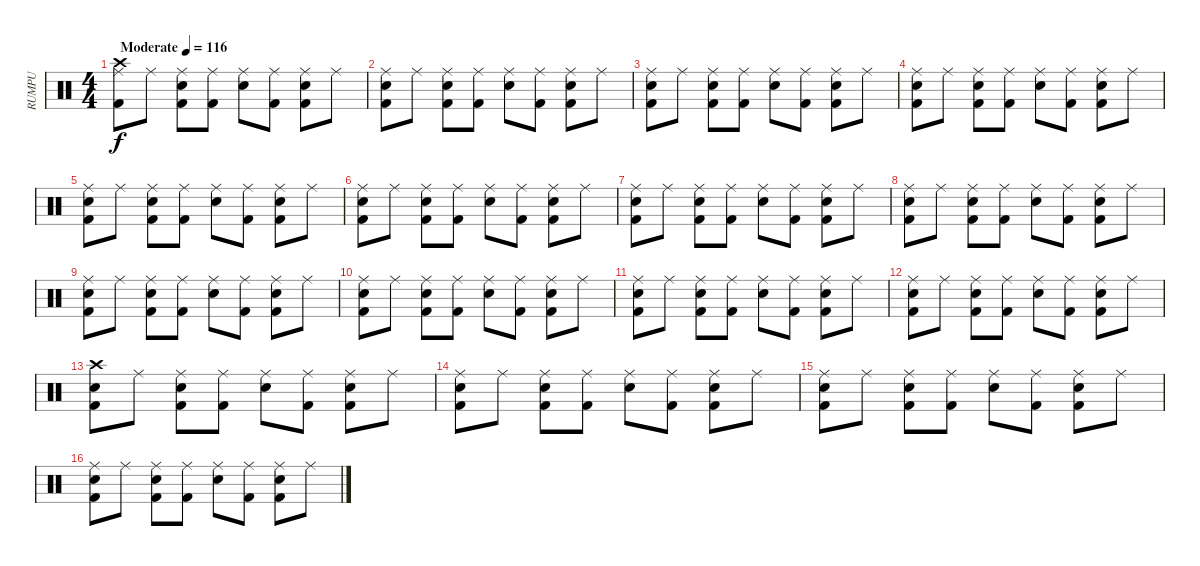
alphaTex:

\track ("RUMPU" "RUMPU") {instrument percussion}
\staff {score}
\articulation defaults
\ts (4 4)
\tempo (116 "Moderate")
\clef neutral
\ks c
("Crash high (hit)" "Ride (middle)" "Kick (hit) 2").8{dy f} "Ride (middle)".8 ("Electric Snare (hit)" "Ride (middle)" "Kick (hit) 2").8 ("Ride (middle)" "Kick (hit) 2").8 ("Electric Snare (hit)" "Ride (middle)").8 ("Ride (middle)" "Kick (hit) 2").8 ("Electric Snare (hit)" "Ride (middle)" "Kick (hit) 2").8 "Ride (middle)".8 |
("Electric Snare (hit)" "Ride (middle)" "Kick (hit) 2").8 "Ride (middle)".8 ("Electric Snare (hit)" "Ride (middle)" "Kick (hit) 2").8 ("Ride (middle)" "Kick (hit) 2").8 ("Electric Snare (hit)" "Ride (middle)").8 ("Ride (middle)" "Kick (hit) 2").8 ("Electric Snare (hit)" "Ride (middle)" "Kick (hit) 2").8 "Ride (middle)".8 |
("Electric Snare (hit)" "Ride (middle)" "Kick (hit) 2").8 "Ride (middle)".8 ("Electric Snare (hit)" "Ride (middle)" "Kick (hit) 2").8 ("Ride (middle)" "Kick (hit) 2").8 ("Electric Snare (hit)" "Ride (middle)").8 ("Ride (middle)" "Kick (hit) 2").8 ("Electric Snare (hit)" "Ride (middle)" "Kick (hit) 2").8 "Ride (middle)".8 |
("Electric Snare (hit)" "Ride (middle)" "Kick (hit) 2").8 "Ride (middle)".8 ("Electric Snare (hit)" "Ride (middle)" "Kick (hit) 2").8 ("Ride (middle)" "Kick (hit) 2").8 ("Electric Snare (hit)" "Ride (middle)").8 ("Ride (middle)" "Kick (hit) 2").8 ("Electric Snare (hit)" "Ride (middle)" "Kick (hit) 2").8 "Ride (middle)".8 |
("Electric Snare (hit)" "Ride (middle)" "Kick (hit) 2").8 "Ride (middle)".8 ("Electric Snare (hit)" "Ride (middle)" "Kick (hit) 2").8 ("Ride (middle)" "Kick (hit) 2").8 ("Electric Snare (hit)" "Ride (middle)").8 ("Ride (middle)" "Kick (hit) 2").8 ("Electric Snare (hit)" "Ride (middle)" "Kick (hit) 2").8 "Ride (middle)".8 |
("Electric Snare (hit)" "Ride (middle)" "Kick (hit) 2").8 "Ride (middle)".8 ("Electric Snare (hit)" "Ride (middle)" "Kick (hit) 2").8 ("Ride (middle)" "Kick (hit) 2").8 ("Electric Snare (hit)" "Ride (middle)").8 ("Ride (middle)" "Kick (hit) 2").8 ("Electric Snare (hit)" "Ride (middle)" "Kick (hit) 2").8 "Ride (middle)".8 |
("Electric Snare (hit)" "Ride (middle)" "Kick (hit) 2").8 "Ride (middle)".8 ("Electric Snare (hit)" "Ride (middle)" "Kick (hit) 2").8 ("Ride (middle)" "Kick (hit) 2").8 ("Electric Snare (hit)" "Ride (middle)").8 ("Ride (middle)" "Kick (hit) 2").8 ("Electric Snare (hit)" "Ride (middle)" "Kick (hit) 2").8 "Ride (middle)".8 |
("Electric Snare (hit)" "Ride (middle)" "Kick (hit) 2").8 "Ride (middle)".8 ("Electric Snare (hit)" "Ride (middle)" "Kick (hit) 2").8 ("Ride (middle)" "Kick (hit) 2").8 ("Electric Snare (hit)" "Ride (middle)").8 ("Ride (middle)" "Kick (hit) 2").8 ("Electric Snare (hit)" "Ride (middle)" "Kick (hit) 2").8 "Ride (middle)".8 |
("Electric Snare (hit)" "Ride (middle)" "Kick (hit) 2").8 "Ride (middle)".8 ("Electric Snare (hit)" "Ride (middle)" "Kick (hit) 2").8 ("Ride (middle)" "Kick (hit) 2").8 ("Electric Snare (hit)" "Ride (middle)").8 ("Ride (middle)" "Kick (hit) 2").8 ("Electric Snare (hit)" "Ride (middle)" "Kick (hit) 2").8 "Ride (middle)".8 |
("Electric Snare (hit)" "Ride (middle)" "Kick (hit) 2").8 "Ride (middle)".8 ("Electric Snare (hit)" "Ride (middle)" "Kick (hit) 2").8 ("Ride (middle)" "Kick (hit) 2").8 ("Electric Snare (hit)" "Ride (middle)").8 ("Ride (middle)" "Kick (hit) 2").8 ("Electric Snare (hit)" "Ride (middle)" "Kick (hit) 2").8 "Ride (middle)".8 |
("Electric Snare (hit)" "Ride (middle)" "Kick (hit) 2").8 "Ride (middle)".8 ("Electric Snare (hit)" "Ride (middle)" "Kick (hit) 2").8 ("Ride (middle)" "Kick (hit) 2").8 ("Electric Snare (hit)" "Ride (middle)").8 ("Ride (middle)" "Kick (hit) 2").8 ("Electric Snare (hit)" "Ride (middle)" "Kick (hit) 2").8 "Ride (middle)".8 |
("Electric Snare (hit)" "Ride (middle)" "Kick (hit) 2").8 "Ride (middle)".8 ("Electric Snare (hit)" "Ride (middle)" "Kick (hit) 2").8 ("Ride (middle)" "Kick (hit) 2").8 ("Electric Snare (hit)" "Ride (middle)").8 ("Ride (middle)" "Kick (hit) 2").8 ("Electric Snare (hit)" "Ride (middle)" "Kick (hit) 2").8 "Ride (middle)".8 |
("Electric Snare (hit)" "Crash high (hit)" "Kick (hit) 2").8 "Ride (middle)".8 ("Electric Snare (hit)" "Ride (middle)" "Kick (hit) 2").8 ("Ride (middle)" "Kick (hit) 2").8 ("Electric Snare (hit)" "Ride (middle)").8 ("Ride (middle)" "Kick (hit) 2").8 ("Electric Snare (hit)" "Ride (middle)" "Kick (hit) 2").8 "Ride (middle)".8 |
("Electric Snare (hit)" "Ride (middle)" "Kick (hit) 2").8 "Ride (middle)".8 ("Electric Snare (hit)" "Ride (middle)" "Kick (hit) 2").8 ("Ride (middle)" "Kick (hit) 2").8 ("Electric Snare (hit)" "Ride (middle)").8 ("Ride (middle)" "Kick (hit) 2").8 ("Electric Snare (hit)" "Ride (middle)" "Kick (hit) 2").8 "Ride (middle)".8 |
("Electric Snare (hit)" "Ride (middle)" "Kick (hit) 2").8 "Ride (middle)".8 ("Electric Snare (hit)" "Ride (middle)" "Kick (hit) 2").8 ("Ride (middle)" "Kick (hit) 2").8 ("Electric Snare (hit)" "Ride (middle)").8 ("Ride (middle)" "Kick (hit) 2").8 ("Electric Snare (hit)" "Ride (middle)" "Kick (hit) 2").8 "Ride (middle)".8 |
("Electric Snare (hit)" "Ride (middle)" "Kick (hit) 2").8 "Ride (middle)".8 ("Electric Snare (hit)" "Ride (middle)" "Kick (hit) 2").8 ("Ride (middle)" "Kick (hit) 2").8 ("Electric Snare (hit)" "Ride (middle)").8 ("Ride (middle)" "Kick (hit) 2").8 ("Electric Snare (hit)" "Ride (middle)" "Kick (hit) 2").8 "Ride (middle)".8
